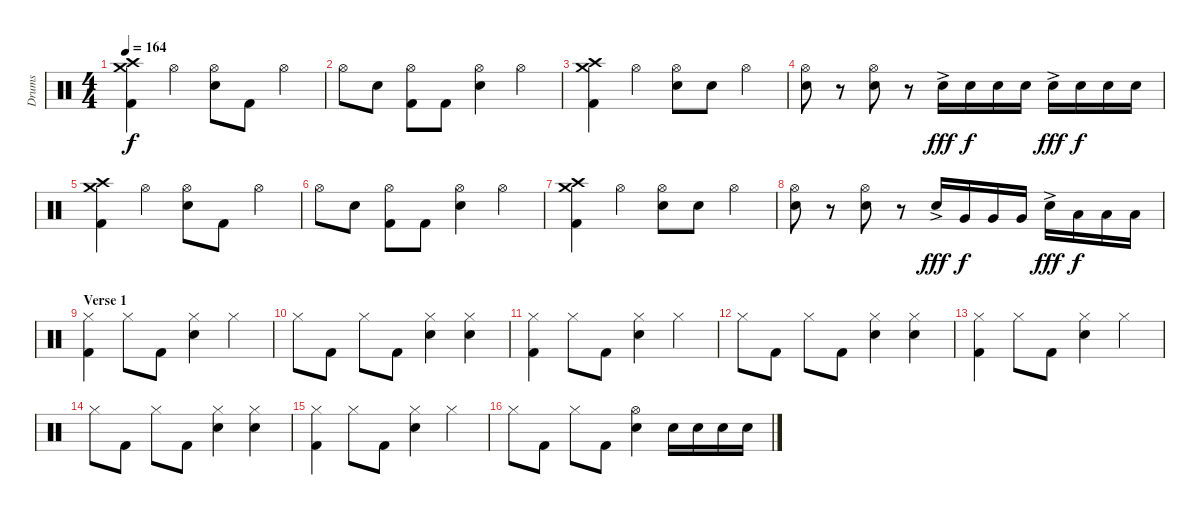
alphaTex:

\track ("Drums" "Drums") {instrument percussion}
\staff {score}
\articulation defaults
\ts (4 4)
\tempo 164
\clef neutral
\ks c
("Crash medium (hit)" "Crash high (hit)" "Kick (hit) 2").4{dy f} "Hi-Hat (open)".4 ("Hi-Hat (open)" "Electric Snare (hit)").8 "Kick (hit) 2".8 "Hi-Hat (open)".4 |
"Hi-Hat (open)".8 "Electric Snare (hit)".8 ("Hi-Hat (open)" "Kick (hit) 2").8 "Kick (hit) 2".8 ("Hi-Hat (open)" "Electric Snare (hit)").4 "Hi-Hat (open)".4 |
("Crash medium (hit)" "Crash high (hit)" "Kick (hit) 2").4 "Hi-Hat (open)".4 ("Hi-Hat (open)" "Electric Snare (hit)").8 "Electric Snare (hit)".8 "Hi-Hat (open)".4 |
("Hi-Hat (open)" "Electric Snare (hit)").8 r.8 ("Hi-Hat (open)" "Electric Snare (hit)").8 r.8 "Electric Snare (hit)"{ac}.16{dy fff} "Electric Snare (hit)".16{dy f} "Electric Snare (hit)".16 "Electric Snare (hit)".16 "Electric Snare (hit)"{ac}.16{dy fff} "Electric Snare (hit)".16{dy f} "Electric Snare (hit)".16 "Electric Snare (hit)".16 |
("Crash medium (hit)" "Crash high (hit)" "Kick (hit) 2").4 "Hi-Hat (open)".4 ("Hi-Hat (open)" "Electric Snare (hit)").8 "Kick (hit) 2".8 "Hi-Hat (open)".4 |
"Hi-Hat (open)".8 "Electric Snare (hit)".8 ("Hi-Hat (open)" "Kick (hit) 2").8 "Kick (hit) 2".8 ("Hi-Hat (open)" "Electric Snare (hit)").4 "Hi-Hat (open)".4 |
("Crash medium (hit)" "Crash high (hit)" "Kick (hit) 2").4 "Hi-Hat (open)".4 ("Hi-Hat (open)" "Electric Snare (hit)").8 "Electric Snare (hit)".8 "Hi-Hat (open)".4 |
("Hi-Hat (open)" "Electric Snare (hit)").8 r.8 ("Hi-Hat (open)" "Electric Snare (hit)").8 r.8 "Electric Snare (hit)"{ac}.16{dy fff} "Very Low Tom (hit)".16{dy f} "Very Low Tom (hit)".16 "Very Low Tom (hit)".16 "Electric Snare (hit)"{ac}.16{dy fff} "Low Floor Tom (hit)".16{dy f} "Low Floor Tom (hit)".16 "Low Floor Tom (hit)".16 |
\section ("" "Verse 1")
("Hi-Hat (closed)" "Kick (hit) 2").4 "Hi-Hat (closed)".8 "Kick (hit) 2".8 ("Hi-Hat (closed)" "Electric Snare (hit)").4 "Hi-Hat (closed)".4 |
"Hi-Hat (closed)".8 "Kick (hit) 2".8 "Hi-Hat (closed)".8 "Kick (hit) 2".8 ("Hi-Hat (closed)" "Electric Snare (hit)").4 ("Hi-Hat (closed)" "Electric Snare (hit)").4 |
("Hi-Hat (closed)" "Kick (hit) 2").4 "Hi-Hat (closed)".8 "Kick (hit) 2".8 ("Hi-Hat (closed)" "Electric Snare (hit)").4 "Hi-Hat (closed)".4 |
"Hi-Hat (closed)".8 "Kick (hit) 2".8 "Hi-Hat (closed)".8 "Kick (hit) 2".8 ("Hi-Hat (closed)" "Electric Snare (hit)").4 ("Hi-Hat (closed)" "Electric Snare (hit)").4 |
("Hi-Hat (closed)" "Kick (hit) 2").4 "Hi-Hat (closed)".8 "Kick (hit) 2".8 ("Hi-Hat (closed)" "Electric Snare (hit)").4 "Hi-Hat (closed)".4 |
"Hi-Hat (closed)".8 "Kick (hit) 2".8 "Hi-Hat (closed)".8 "Kick (hit) 2".8 ("Hi-Hat (closed)" "Electric Snare (hit)").4 ("Hi-Hat (closed)" "Electric Snare (hit)").4 |
("Hi-Hat (closed)" "Kick (hit) 2").4 "Hi-Hat (closed)".8 "Kick (hit) 2".8 ("Hi-Hat (closed)" "Electric Snare (hit)").4 "Hi-Hat (closed)".4 |
"Hi-Hat (closed)".8 "Kick (hit) 2".8 "Hi-Hat (closed)".8 "Kick (hit) 2".8 ("Hi-Hat (open)" "Electric Snare (hit)").4 "Electric Snare (hit)".16 "Electric Snare (hit)".16 "Electric Snare (hit)".16 "Electric Snare (hit)".16
